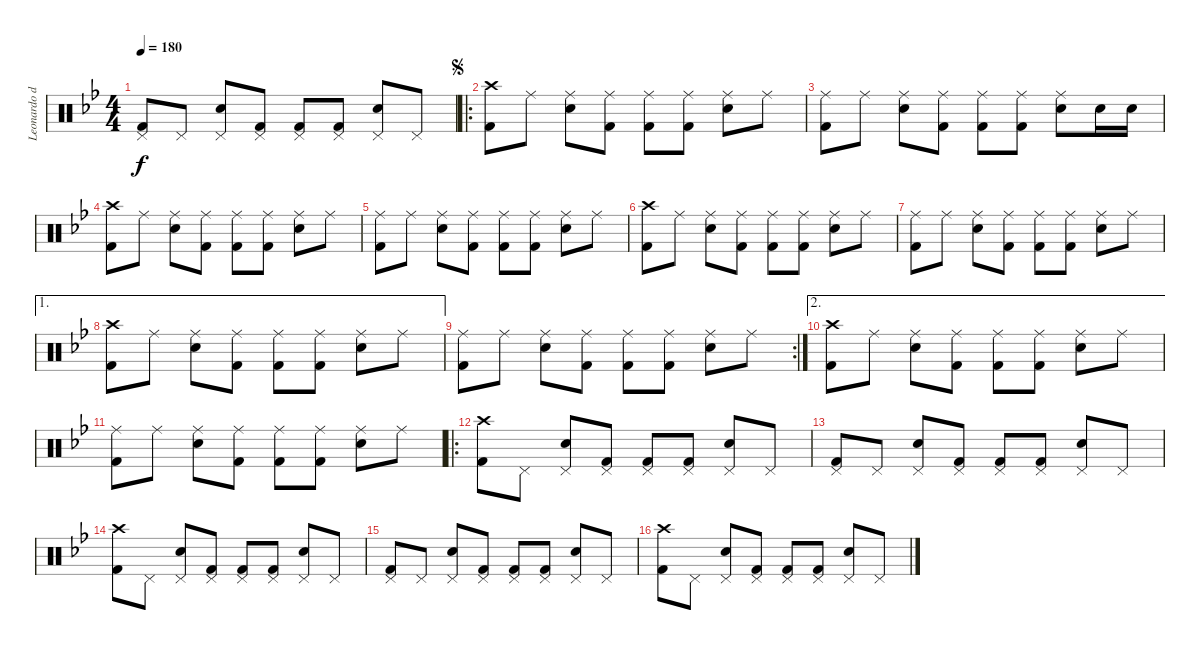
\track ("Leonardo de Cecco" "Leonardo d") {instrument percussion}
\staff {score}
\articulation defaults
\ts (4 4)
\tempo 180
\clef neutral
\ks bb
("Pedal Hi-Hat (hit)" "Kick (hit) 2").8{dy f} "Pedal Hi-Hat (hit)".8 ("Pedal Hi-Hat (hit)" "Snare (hit) 2").8 ("Pedal Hi-Hat (hit)" "Kick (hit) 2").8 ("Pedal Hi-Hat (hit)" "Kick (hit) 2").8 ("Pedal Hi-Hat (hit)" "Kick (hit) 2").8 ("Pedal Hi-Hat (hit)" "Snare (hit) 2").8 "Pedal Hi-Hat (hit)".8 |
\ro
\jump segno
("Crash high (hit)" "Kick (hit) 2").8 "Ride (middle)".8 ("Ride (middle)" "Snare (hit) 2").8 ("Ride (middle)" "Kick (hit) 2").8 ("Ride (middle)" "Kick (hit) 2").8 ("Ride (middle)" "Kick (hit) 2").8 ("Ride (middle)" "Snare (hit) 2").8 "Ride (middle)".8 |
("Ride (middle)" "Kick (hit) 2").8 "Ride (middle)".8 ("Ride (middle)" "Snare (hit) 2").8 ("Ride (middle)" "Kick (hit) 2").8 ("Ride (middle)" "Kick (hit) 2").8 ("Ride (middle)" "Kick (hit) 2").8 ("Ride (middle)" "Snare (hit) 2").8 "Snare (hit) 2".16 "Snare (hit) 2".16 |
("Crash high (hit)" "Kick (hit) 2").8 "Ride (middle)".8 ("Ride (middle)" "Snare (hit) 2").8 ("Ride (middle)" "Kick (hit) 2").8 ("Ride (middle)" "Kick (hit) 2").8 ("Ride (middle)" "Kick (hit) 2").8 ("Ride (middle)" "Snare (hit) 2").8 "Ride (middle)".8 |
("Ride (middle)" "Kick (hit) 2").8 "Ride (middle)".8 ("Ride (middle)" "Snare (hit) 2").8 ("Ride (middle)" "Kick (hit) 2").8 ("Ride (middle)" "Kick (hit) 2").8 ("Ride (middle)" "Kick (hit) 2").8 ("Ride (middle)" "Snare (hit) 2").8 "Ride (middle)".8 |
("Crash high (hit)" "Kick (hit) 2").8 "Ride (middle)".8 ("Ride (middle)" "Snare (hit) 2").8 ("Ride (middle)" "Kick (hit) 2").8 ("Ride (middle)" "Kick (hit) 2").8 ("Ride (middle)" "Kick (hit) 2").8 ("Ride (middle)" "Snare (hit) 2").8 "Ride (middle)".8 |
("Ride (middle)" "Kick (hit) 2").8 "Ride (middle)".8 ("Ride (middle)" "Snare (hit) 2").8 ("Ride (middle)" "Kick (hit) 2").8 ("Ride (middle)" "Kick (hit) 2").8 ("Ride (middle)" "Kick (hit) 2").8 ("Ride (middle)" "Snare (hit) 2").8 "Ride (middle)".8 |
\ae 1
("Crash high (hit)" "Kick (hit) 2").8 "Ride (middle)".8 ("Ride (middle)" "Snare (hit) 2").8 ("Ride (middle)" "Kick (hit) 2").8 ("Ride (middle)" "Kick (hit) 2").8 ("Ride (middle)" "Kick (hit) 2").8 ("Ride (middle)" "Snare (hit) 2").8 "Ride (middle)".8 |
\rc 2
("Ride (middle)" "Kick (hit) 2").8 "Ride (middle)".8 ("Ride (middle)" "Snare (hit) 2").8 ("Ride (middle)" "Kick (hit) 2").8 ("Ride (middle)" "Kick (hit) 2").8 ("Ride (middle)" "Kick (hit) 2").8 ("Ride (middle)" "Snare (hit) 2").8 "Ride (middle)".8 |
\ae 2
("Crash high (hit)" "Kick (hit) 2").8 "Ride (middle)".8 ("Ride (middle)" "Snare (hit) 2").8 ("Ride (middle)" "Kick (hit) 2").8 ("Ride (middle)" "Kick (hit) 2").8 ("Ride (middle)" "Kick (hit) 2").8 ("Ride (middle)" "Snare (hit) 2").8 "Ride (middle)".8 |
("Ride (middle)" "Kick (hit) 2").8 "Ride (middle)".8 ("Ride (middle)" "Snare (hit) 2").8 ("Ride (middle)" "Kick (hit) 2").8 ("Ride (middle)" "Kick (hit) 2").8 ("Ride (middle)" "Kick (hit) 2").8 ("Ride (middle)" "Snare (hit) 2").8 "Ride (middle)".8 |
\ro
("Crash high (hit)" "Kick (hit) 2").8 "Pedal Hi-Hat (hit)".8 ("Pedal Hi-Hat (hit)" "Snare (hit) 2").8 ("Pedal Hi-Hat (hit)" "Kick (hit) 2").8 ("Pedal Hi-Hat (hit)" "Kick (hit) 2").8 ("Pedal Hi-Hat (hit)" "Kick (hit) 2").8 ("Pedal Hi-Hat (hit)" "Snare (hit) 2").8 "Pedal Hi-Hat (hit)".8 |
("Pedal Hi-Hat (hit)" "Kick (hit) 2").8 "Pedal Hi-Hat (hit)".8 ("Pedal Hi-Hat (hit)" "Snare (hit) 2").8 ("Pedal Hi-Hat (hit)" "Kick (hit) 2").8 ("Pedal Hi-Hat (hit)" "Kick (hit) 2").8 ("Pedal Hi-Hat (hit)" "Kick (hit) 2").8 ("Pedal Hi-Hat (hit)" "Snare (hit) 2").8 "Pedal Hi-Hat (hit)".8 |
("Crash high (hit)" "Kick (hit) 2").8 "Pedal Hi-Hat (hit)".8 ("Pedal Hi-Hat (hit)" "Snare (hit) 2").8 ("Pedal Hi-Hat (hit)" "Kick (hit) 2").8 ("Pedal Hi-Hat (hit)" "Kick (hit) 2").8 ("Pedal Hi-Hat (hit)" "Kick (hit) 2").8 ("Pedal Hi-Hat (hit)" "Snare (hit) 2").8 "Pedal Hi-Hat (hit)".8 |
("Pedal Hi-Hat (hit)" "Kick (hit) 2").8 "Pedal Hi-Hat (hit)".8 ("Pedal Hi-Hat (hit)" "Snare (hit) 2").8 ("Pedal Hi-Hat (hit)" "Kick (hit) 2").8 ("Pedal Hi-Hat (hit)" "Kick (hit) 2").8 ("Pedal Hi-Hat (hit)" "Kick (hit) 2").8 ("Pedal Hi-Hat (hit)" "Snare (hit) 2").8 "Pedal Hi-Hat (hit)".8 |
("Crash high (hit)" "Kick (hit) 2").8 "Pedal Hi-Hat (hit)".8 ("Pedal Hi-Hat (hit)" "Snare (hit) 2").8 ("Pedal Hi-Hat (hit)" "Kick (hit) 2").8 ("Pedal Hi-Hat (hit)" "Kick (hit) 2").8 ("Pedal Hi-Hat (hit)" "Kick (hit) 2").8 ("Pedal Hi-Hat (hit)" "Snare (hit) 2").8 "Pedal Hi-Hat (hit)".8
